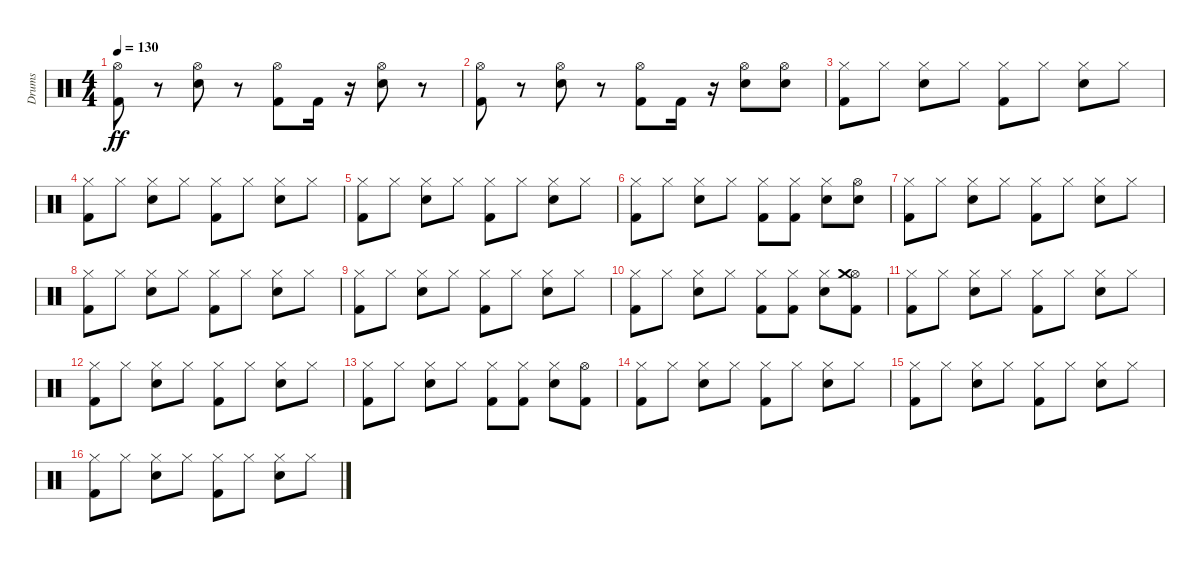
\track ("Drums" "Drums") {instrument percussion}
\staff {score}
\articulation defaults
\ts (4 4)
\tempo 130
\clef neutral
\ks c
("Kick (hit) 2" "Hi-Hat (open)").8{dy ff} r.8 ("Snare (hit) 2" "Hi-Hat (open)").8 r.8 ("Kick (hit) 2" "Hi-Hat (open)").8 "Kick (hit) 2".16 r.16 ("Snare (hit) 2" "Hi-Hat (open)").8 r.8 |
("Kick (hit) 2" "Hi-Hat (open)").8 r.8 ("Snare (hit) 2" "Hi-Hat (open)").8 r.8 ("Kick (hit) 2" "Hi-Hat (open)").8 "Kick (hit) 2".16 r.16 ("Snare (hit) 2" "Hi-Hat (open)").8 ("Snare (hit) 2" "Hi-Hat (open)").8 |
("Kick (hit) 2" "Hi-Hat (closed)").8 "Hi-Hat (closed)".8 ("Snare (hit) 2" "Hi-Hat (closed)").8 "Hi-Hat (closed)".8 ("Kick (hit) 2" "Hi-Hat (closed)").8 "Hi-Hat (closed)".8 ("Snare (hit) 2" "Hi-Hat (closed)").8 "Hi-Hat (closed)".8 |
("Kick (hit) 2" "Hi-Hat (closed)").8 "Hi-Hat (closed)".8 ("Snare (hit) 2" "Hi-Hat (closed)").8 "Hi-Hat (closed)".8 ("Kick (hit) 2" "Hi-Hat (closed)").8 "Hi-Hat (closed)".8 ("Snare (hit) 2" "Hi-Hat (closed)").8 "Hi-Hat (closed)".8 |
("Kick (hit) 2" "Hi-Hat (closed)").8 "Hi-Hat (closed)".8 ("Snare (hit) 2" "Hi-Hat (closed)").8 "Hi-Hat (closed)".8 ("Kick (hit) 2" "Hi-Hat (closed)").8 "Hi-Hat (closed)".8 ("Snare (hit) 2" "Hi-Hat (closed)").8 "Hi-Hat (closed)".8 |
("Kick (hit) 2" "Hi-Hat (closed)").8 "Hi-Hat (closed)".8 ("Snare (hit) 2" "Hi-Hat (closed)").8 "Hi-Hat (closed)".8 ("Kick (hit) 2" "Hi-Hat (closed)").8 ("Kick (hit) 2" "Hi-Hat (closed)").8 ("Snare (hit) 2" "Hi-Hat (closed)").8 ("Snare (hit) 2" "Hi-Hat (open)").8 |
("Kick (hit) 2" "Hi-Hat (closed)").8 "Hi-Hat (closed)".8 ("Snare (hit) 2" "Hi-Hat (closed)").8 "Hi-Hat (closed)".8 ("Kick (hit) 2" "Hi-Hat (closed)").8 "Hi-Hat (closed)".8 ("Snare (hit) 2" "Hi-Hat (closed)").8 "Hi-Hat (closed)".8 |
("Kick (hit) 2" "Hi-Hat (closed)").8 "Hi-Hat (closed)".8 ("Snare (hit) 2" "Hi-Hat (closed)").8 "Hi-Hat (closed)".8 ("Kick (hit) 2" "Hi-Hat (closed)").8 "Hi-Hat (closed)".8 ("Snare (hit) 2" "Hi-Hat (closed)").8 "Hi-Hat (closed)".8 |
("Kick (hit) 2" "Hi-Hat (closed)").8 "Hi-Hat (closed)".8 ("Snare (hit) 2" "Hi-Hat (closed)").8 "Hi-Hat (closed)".8 ("Kick (hit) 2" "Hi-Hat (closed)").8 "Hi-Hat (closed)".8 ("Snare (hit) 2" "Hi-Hat (closed)").8 "Hi-Hat (closed)".8 |
("Kick (hit) 2" "Hi-Hat (closed)").8 "Hi-Hat (closed)".8 ("Snare (hit) 2" "Hi-Hat (closed)").8 "Hi-Hat (closed)".8 ("Kick (hit) 2" "Hi-Hat (closed)").8 ("Kick (hit) 2" "Hi-Hat (closed)").8 ("Snare (hit) 2" "Hi-Hat (closed)").8 ("Kick (hit) 2" "Hi-Hat (open)" "Crash medium (hit)").8 |
("Kick (hit) 2" "Hi-Hat (closed)").8 "Hi-Hat (closed)".8 ("Snare (hit) 2" "Hi-Hat (closed)").8 "Hi-Hat (closed)".8 ("Kick (hit) 2" "Hi-Hat (closed)").8 "Hi-Hat (closed)".8 ("Snare (hit) 2" "Hi-Hat (closed)").8 "Hi-Hat (closed)".8 |
("Kick (hit) 2" "Hi-Hat (closed)").8 "Hi-Hat (closed)".8 ("Snare (hit) 2" "Hi-Hat (closed)").8 "Hi-Hat (closed)".8 ("Kick (hit) 2" "Hi-Hat (closed)").8 "Hi-Hat (closed)".8 ("Snare (hit) 2" "Hi-Hat (closed)").8 "Hi-Hat (closed)".8 |
("Kick (hit) 2" "Hi-Hat (closed)").8 "Hi-Hat (closed)".8 ("Snare (hit) 2" "Hi-Hat (closed)").8 "Hi-Hat (closed)".8 ("Kick (hit) 2" "Hi-Hat (closed)").8 ("Kick (hit) 2" "Hi-Hat (closed)").8 ("Snare (hit) 2" "Hi-Hat (closed)").8 ("Kick (hit) 2" "Hi-Hat (open)").8 |
("Kick (hit) 2" "Hi-Hat (closed)").8 "Hi-Hat (closed)".8 ("Snare (hit) 2" "Hi-Hat (closed)").8 "Hi-Hat (closed)".8 ("Kick (hit) 2" "Hi-Hat (closed)").8 "Hi-Hat (closed)".8 ("Snare (hit) 2" "Hi-Hat (closed)").8 "Hi-Hat (closed)".8 |
("Kick (hit) 2" "Hi-Hat (closed)").8 "Hi-Hat (closed)".8 ("Snare (hit) 2" "Hi-Hat (closed)").8 "Hi-Hat (closed)".8 ("Kick (hit) 2" "Hi-Hat (closed)").8 "Hi-Hat (closed)".8 ("Snare (hit) 2" "Hi-Hat (closed)").8 "Hi-Hat (closed)".8 |
("Kick (hit) 2" "Hi-Hat (closed)").8 "Hi-Hat (closed)".8 ("Snare (hit) 2" "Hi-Hat (closed)").8 "Hi-Hat (closed)".8 ("Kick (hit) 2" "Hi-Hat (closed)").8 "Hi-Hat (closed)".8 ("Snare (hit) 2" "Hi-Hat (closed)").8 "Hi-Hat (closed)".8
